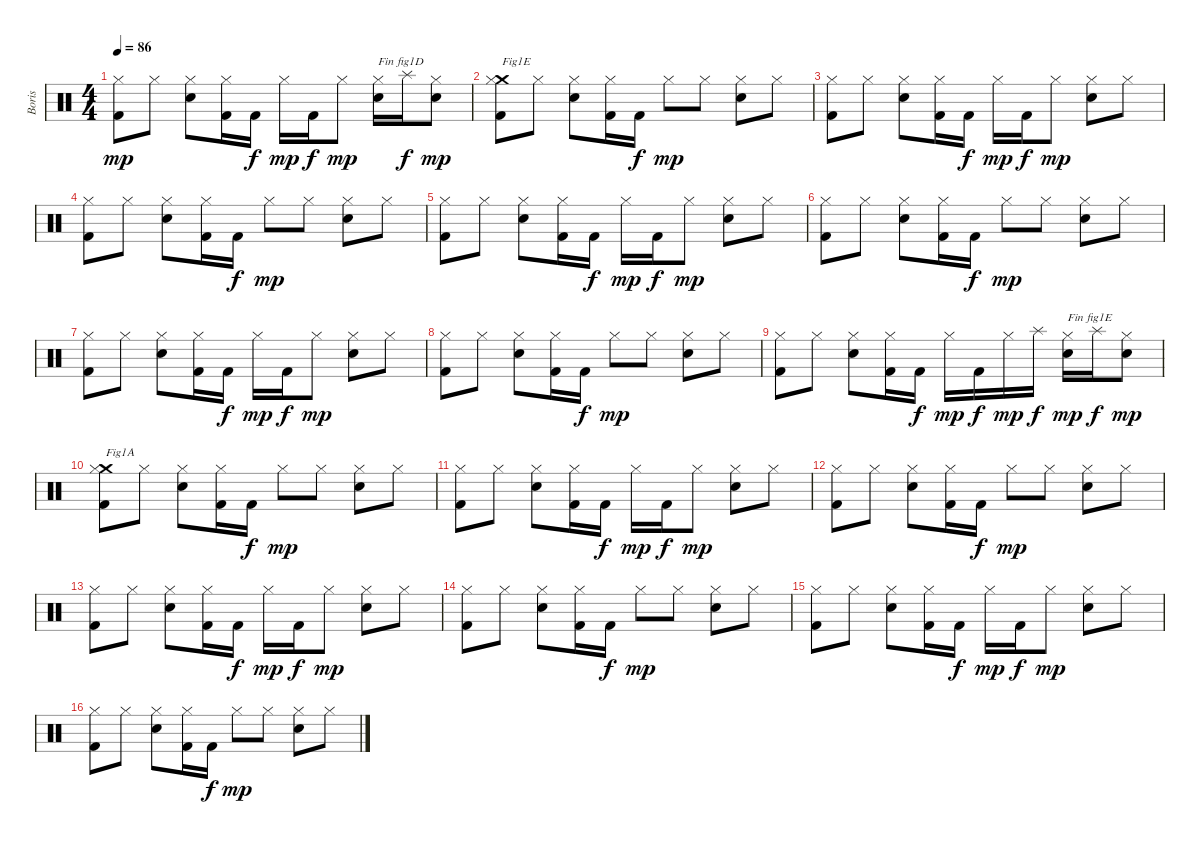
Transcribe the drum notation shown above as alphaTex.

\track ("Boris" "Boris") {instrument percussion}
\staff {score}
\articulation defaults
\ts (4 4)
\tempo 86
\clef neutral
\ks c
("Kick (hit) 2" "Hi-Hat (closed)").8{dy mp} "Hi-Hat (closed)".8 ("Electric Snare (hit)" "Hi-Hat (closed)").8 ("Kick (hit) 2" "Hi-Hat (closed)").16 "Kick (hit) 2".16{dy f} "Hi-Hat (closed)".16{dy mp} "Kick (hit) 2".16{dy f} "Hi-Hat (closed)".8{dy mp} ("Electric Snare (hit)" "Hi-Hat (closed)").16{txt "Fin fig1D"} "Splash (hit)".16{dy f} ("Electric Snare (hit)" "Hi-Hat (closed)").8{dy mp} |
("Kick (hit) 2" "Crash medium (hit)" "Hi-Hat (closed)").8{txt "Fig1E"} "Hi-Hat (closed)".8 ("Electric Snare (hit)" "Hi-Hat (closed)").8 ("Kick (hit) 2" "Hi-Hat (closed)").16 "Kick (hit) 2".16{dy f} "Hi-Hat (closed)".8{dy mp} "Hi-Hat (closed)".8 ("Electric Snare (hit)" "Hi-Hat (closed)").8 "Hi-Hat (closed)".8 |
("Kick (hit) 2" "Hi-Hat (closed)").8 "Hi-Hat (closed)".8 ("Electric Snare (hit)" "Hi-Hat (closed)").8 ("Kick (hit) 2" "Hi-Hat (closed)").16 "Kick (hit) 2".16{dy f} "Hi-Hat (closed)".16{dy mp} "Kick (hit) 2".16{dy f} "Hi-Hat (closed)".8{dy mp} ("Electric Snare (hit)" "Hi-Hat (closed)").8 "Hi-Hat (closed)".8 |
("Kick (hit) 2" "Hi-Hat (closed)").8 "Hi-Hat (closed)".8 ("Electric Snare (hit)" "Hi-Hat (closed)").8 ("Kick (hit) 2" "Hi-Hat (closed)").16 "Kick (hit) 2".16{dy f} "Hi-Hat (closed)".8{dy mp} "Hi-Hat (closed)".8 ("Electric Snare (hit)" "Hi-Hat (closed)").8 "Hi-Hat (closed)".8 |
("Kick (hit) 2" "Hi-Hat (closed)").8 "Hi-Hat (closed)".8 ("Electric Snare (hit)" "Hi-Hat (closed)").8 ("Kick (hit) 2" "Hi-Hat (closed)").16 "Kick (hit) 2".16{dy f} "Hi-Hat (closed)".16{dy mp} "Kick (hit) 2".16{dy f} "Hi-Hat (closed)".8{dy mp} ("Electric Snare (hit)" "Hi-Hat (closed)").8 "Hi-Hat (closed)".8 |
("Kick (hit) 2" "Hi-Hat (closed)").8 "Hi-Hat (closed)".8 ("Electric Snare (hit)" "Hi-Hat (closed)").8 ("Kick (hit) 2" "Hi-Hat (closed)").16 "Kick (hit) 2".16{dy f} "Hi-Hat (closed)".8{dy mp} "Hi-Hat (closed)".8 ("Electric Snare (hit)" "Hi-Hat (closed)").8 "Hi-Hat (closed)".8 |
("Kick (hit) 2" "Hi-Hat (closed)").8 "Hi-Hat (closed)".8 ("Electric Snare (hit)" "Hi-Hat (closed)").8 ("Kick (hit) 2" "Hi-Hat (closed)").16 "Kick (hit) 2".16{dy f} "Hi-Hat (closed)".16{dy mp} "Kick (hit) 2".16{dy f} "Hi-Hat (closed)".8{dy mp} ("Electric Snare (hit)" "Hi-Hat (closed)").8 "Hi-Hat (closed)".8 |
("Kick (hit) 2" "Hi-Hat (closed)").8 "Hi-Hat (closed)".8 ("Electric Snare (hit)" "Hi-Hat (closed)").8 ("Kick (hit) 2" "Hi-Hat (closed)").16 "Kick (hit) 2".16{dy f} "Hi-Hat (closed)".8{dy mp} "Hi-Hat (closed)".8 ("Electric Snare (hit)" "Hi-Hat (closed)").8 "Hi-Hat (closed)".8 |
("Kick (hit) 2" "Hi-Hat (closed)").8 "Hi-Hat (closed)".8 ("Electric Snare (hit)" "Hi-Hat (closed)").8 ("Kick (hit) 2" "Hi-Hat (closed)").16 "Kick (hit) 2".16{dy f} "Hi-Hat (closed)".16{dy mp} "Kick (hit) 2".16{dy f} "Hi-Hat (closed)".16{dy mp} "Splash (hit)".16{dy f} ("Electric Snare (hit)" "Hi-Hat (closed)").16{txt "Fin fig1E" dy mp} "Splash (hit)".16{dy f} ("Electric Snare (hit)" "Hi-Hat (closed)").8{dy mp} |
("Kick (hit) 2" "Crash medium (hit)" "Hi-Hat (closed)").8{txt "Fig1A"} "Hi-Hat (closed)".8 ("Electric Snare (hit)" "Hi-Hat (closed)").8 ("Kick (hit) 2" "Hi-Hat (closed)").16 "Kick (hit) 2".16{dy f} "Hi-Hat (closed)".8{dy mp} "Hi-Hat (closed)".8 ("Electric Snare (hit)" "Hi-Hat (closed)").8 "Hi-Hat (closed)".8 |
("Kick (hit) 2" "Hi-Hat (closed)").8 "Hi-Hat (closed)".8 ("Electric Snare (hit)" "Hi-Hat (closed)").8 ("Kick (hit) 2" "Hi-Hat (closed)").16 "Kick (hit) 2".16{dy f} "Hi-Hat (closed)".16{dy mp} "Kick (hit) 2".16{dy f} "Hi-Hat (closed)".8{dy mp} ("Electric Snare (hit)" "Hi-Hat (closed)").8 "Hi-Hat (closed)".8 |
("Kick (hit) 2" "Hi-Hat (closed)").8 "Hi-Hat (closed)".8 ("Electric Snare (hit)" "Hi-Hat (closed)").8 ("Kick (hit) 2" "Hi-Hat (closed)").16 "Kick (hit) 2".16{dy f} "Hi-Hat (closed)".8{dy mp} "Hi-Hat (closed)".8 ("Electric Snare (hit)" "Hi-Hat (closed)").8 "Hi-Hat (closed)".8 |
("Kick (hit) 2" "Hi-Hat (closed)").8 "Hi-Hat (closed)".8 ("Electric Snare (hit)" "Hi-Hat (closed)").8 ("Kick (hit) 2" "Hi-Hat (closed)").16 "Kick (hit) 2".16{dy f} "Hi-Hat (closed)".16{dy mp} "Kick (hit) 2".16{dy f} "Hi-Hat (closed)".8{dy mp} ("Electric Snare (hit)" "Hi-Hat (closed)").8 "Hi-Hat (closed)".8 |
("Kick (hit) 2" "Hi-Hat (closed)").8 "Hi-Hat (closed)".8 ("Electric Snare (hit)" "Hi-Hat (closed)").8 ("Kick (hit) 2" "Hi-Hat (closed)").16 "Kick (hit) 2".16{dy f} "Hi-Hat (closed)".8{dy mp} "Hi-Hat (closed)".8 ("Electric Snare (hit)" "Hi-Hat (closed)").8 "Hi-Hat (closed)".8 |
("Kick (hit) 2" "Hi-Hat (closed)").8 "Hi-Hat (closed)".8 ("Electric Snare (hit)" "Hi-Hat (closed)").8 ("Kick (hit) 2" "Hi-Hat (closed)").16 "Kick (hit) 2".16{dy f} "Hi-Hat (closed)".16{dy mp} "Kick (hit) 2".16{dy f} "Hi-Hat (closed)".8{dy mp} ("Electric Snare (hit)" "Hi-Hat (closed)").8 "Hi-Hat (closed)".8 |
("Kick (hit) 2" "Hi-Hat (closed)").8 "Hi-Hat (closed)".8 ("Electric Snare (hit)" "Hi-Hat (closed)").8 ("Kick (hit) 2" "Hi-Hat (closed)").16 "Kick (hit) 2".16{dy f} "Hi-Hat (closed)".8{dy mp} "Hi-Hat (closed)".8 ("Electric Snare (hit)" "Hi-Hat (closed)").8 "Hi-Hat (closed)".8
